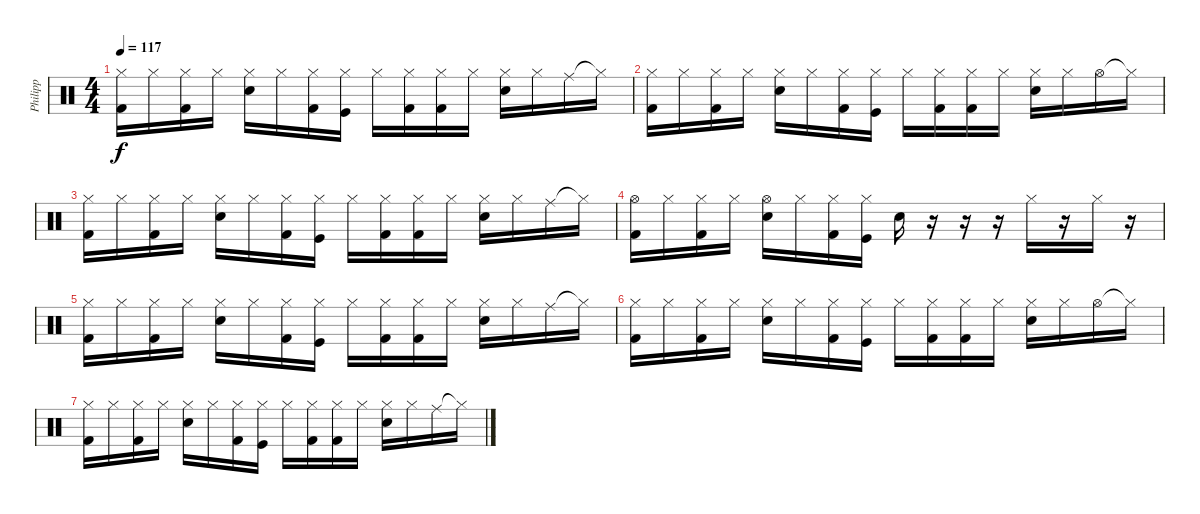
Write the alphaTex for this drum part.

\track ("Philipp" "Philipp") {instrument percussion}
\staff {score}
\articulation defaults
\ts (4 4)
\tempo 117
\clef neutral
\ks c
("Hi-Hat (closed)" "Kick (hit) 2").16{dy f} "Hi-Hat (closed)".16 ("Hi-Hat (closed)" "Kick (hit) 2").16 "Hi-Hat (closed)".16 ("Hi-Hat (closed)" "Electric Snare (hit)").16 "Hi-Hat (closed)".16 ("Hi-Hat (closed)" "Kick (hit) 2").16 ("Hi-Hat (closed)" "Kick (hit)").16 "Hi-Hat (closed)".16 ("Hi-Hat (closed)" "Kick (hit) 2").16 ("Hi-Hat (closed)" "Kick (hit) 2").16 "Hi-Hat (closed)".16 ("Hi-Hat (closed)" "Electric Snare (hit)").16 "Hi-Hat (closed)".16 "Ride (middle)".16 "Hi-Hat (closed)"{t}.16 |
("Hi-Hat (closed)" "Kick (hit) 2").16{volume 4} "Hi-Hat (closed)".16 ("Hi-Hat (closed)" "Kick (hit) 2").16 "Hi-Hat (closed)".16 ("Hi-Hat (closed)" "Electric Snare (hit)").16 "Hi-Hat (closed)".16 ("Hi-Hat (closed)" "Kick (hit) 2").16 ("Hi-Hat (closed)" "Kick (hit)").16 "Hi-Hat (closed)".16 ("Hi-Hat (closed)" "Kick (hit) 2").16 ("Hi-Hat (closed)" "Kick (hit) 2").16 "Hi-Hat (closed)".16 ("Hi-Hat (closed)" "Electric Snare (hit)").16 "Hi-Hat (closed)".16 "Hi-Hat (open)".16 "Hi-Hat (closed)"{t}.16 |
("Hi-Hat (closed)" "Kick (hit) 2").16 "Hi-Hat (closed)".16 ("Hi-Hat (closed)" "Kick (hit) 2").16 "Hi-Hat (closed)".16 ("Hi-Hat (closed)" "Electric Snare (hit)").16 "Hi-Hat (closed)".16 ("Hi-Hat (closed)" "Kick (hit) 2").16 ("Hi-Hat (closed)" "Kick (hit)").16 "Hi-Hat (closed)".16 ("Hi-Hat (closed)" "Kick (hit) 2").16 ("Hi-Hat (closed)" "Kick (hit) 2").16 "Hi-Hat (closed)".16 ("Hi-Hat (closed)" "Electric Snare (hit)").16 "Hi-Hat (closed)".16 "Ride (middle)".16 "Hi-Hat (closed)"{t}.16 |
("Hi-Hat (open)" "Kick (hit) 2").16{volume 3} "Hi-Hat (closed)".16 ("Hi-Hat (closed)" "Kick (hit) 2").16 "Hi-Hat (closed)".16 ("Hi-Hat (open)" "Electric Snare (hit)").16 "Hi-Hat (closed)".16 ("Hi-Hat (closed)" "Kick (hit) 2").16 ("Hi-Hat (closed)" "Kick (hit)").16 "Electric Snare (hit)".16 r.16 r.16 r.16 "Hi-Hat (closed)".16 r.16 "Hi-Hat (closed)".16 r.16 |
("Hi-Hat (closed)" "Kick (hit) 2").16 "Hi-Hat (closed)".16 ("Hi-Hat (closed)" "Kick (hit) 2").16 "Hi-Hat (closed)".16 ("Hi-Hat (closed)" "Electric Snare (hit)").16 "Hi-Hat (closed)".16 ("Hi-Hat (closed)" "Kick (hit) 2").16 ("Hi-Hat (closed)" "Kick (hit)").16 "Hi-Hat (closed)".16 ("Hi-Hat (closed)" "Kick (hit) 2").16 ("Hi-Hat (closed)" "Kick (hit) 2").16 "Hi-Hat (closed)".16 ("Hi-Hat (closed)" "Electric Snare (hit)").16 "Hi-Hat (closed)".16 "Ride (middle)".16 "Hi-Hat (closed)"{t}.16 |
("Hi-Hat (closed)" "Kick (hit) 2").16{volume 0} "Hi-Hat (closed)".16 ("Hi-Hat (closed)" "Kick (hit) 2").16 "Hi-Hat (closed)".16 ("Hi-Hat (closed)" "Electric Snare (hit)").16 "Hi-Hat (closed)".16 ("Hi-Hat (closed)" "Kick (hit) 2").16 ("Hi-Hat (closed)" "Kick (hit)").16 "Hi-Hat (closed)".16 ("Hi-Hat (closed)" "Kick (hit) 2").16 ("Hi-Hat (closed)" "Kick (hit) 2").16 "Hi-Hat (closed)".16 ("Hi-Hat (closed)" "Electric Snare (hit)").16 "Hi-Hat (closed)".16 "Hi-Hat (open)".16 "Hi-Hat (closed)"{t}.16 |
("Hi-Hat (closed)" "Kick (hit) 2").16 "Hi-Hat (closed)".16 ("Hi-Hat (closed)" "Kick (hit) 2").16 "Hi-Hat (closed)".16 ("Hi-Hat (closed)" "Electric Snare (hit)").16 "Hi-Hat (closed)".16 ("Hi-Hat (closed)" "Kick (hit) 2").16 ("Hi-Hat (closed)" "Kick (hit)").16 "Hi-Hat (closed)".16 ("Hi-Hat (closed)" "Kick (hit) 2").16 ("Hi-Hat (closed)" "Kick (hit) 2").16 "Hi-Hat (closed)".16 ("Hi-Hat (closed)" "Electric Snare (hit)").16 "Hi-Hat (closed)".16 "Ride (middle)".16 "Hi-Hat (closed)"{t}.16
